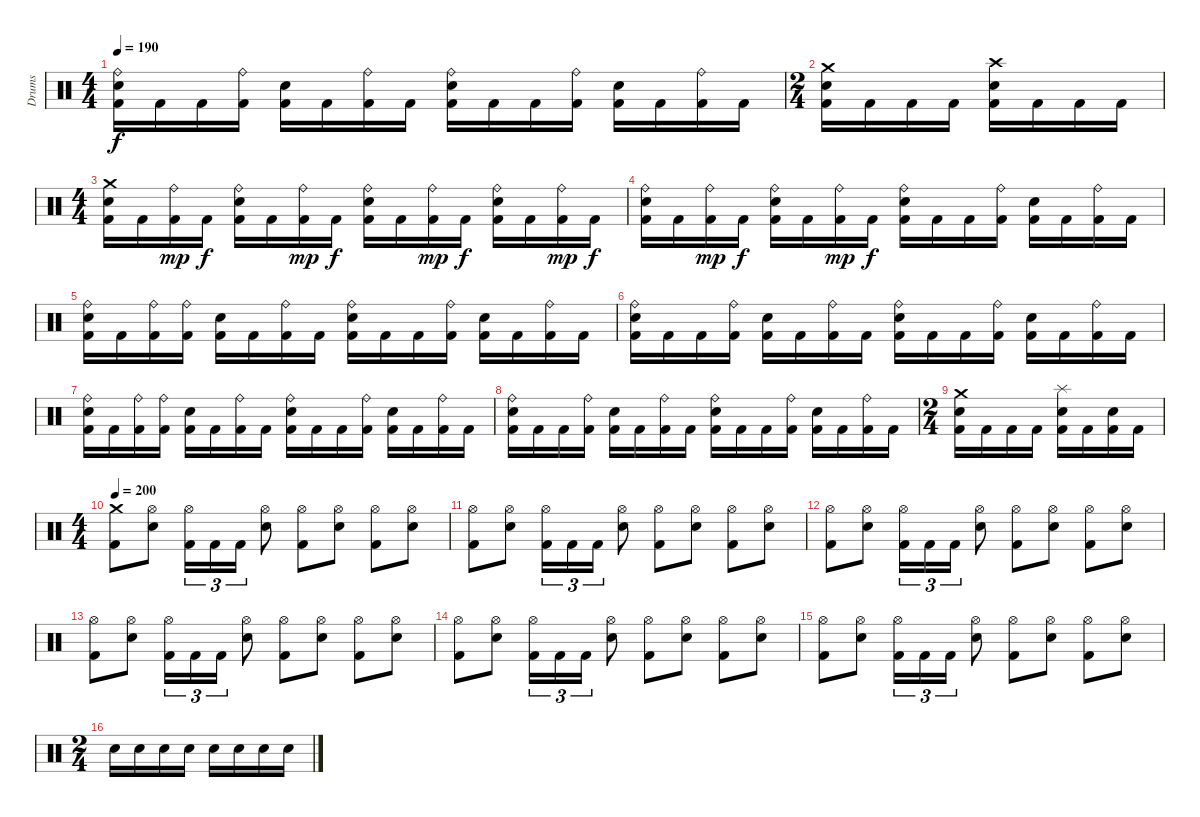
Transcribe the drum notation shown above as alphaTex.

\track ("Drums" "Drums") {instrument percussion}
\staff {score}
\articulation defaults
\ts (4 4)
\tempo 190
\clef neutral
\ks c
("Kick (hit) 2" "Electric Snare (hit)" "Ride (bell)").16{dy f} "Kick (hit) 2".16 "Kick (hit) 2".16 ("Kick (hit) 2" "Ride (bell)").16 ("Kick (hit) 2" "Electric Snare (hit)").16 "Kick (hit) 2".16 ("Kick (hit) 2" "Ride (bell)").16 "Kick (hit) 2".16 ("Kick (hit) 2" "Electric Snare (hit)" "Ride (bell)").16 "Kick (hit) 2".16 "Kick (hit) 2".16 ("Kick (hit) 2" "Ride (bell)").16 ("Kick (hit) 2" "Electric Snare (hit)").16 "Kick (hit) 2".16 ("Kick (hit) 2" "Ride (bell)").16 "Kick (hit) 2".16 |
\ts (2 4)
("Kick (hit) 2" "Electric Snare (hit)" "Crash medium (hit)").16 "Kick (hit) 2".16 "Kick (hit) 2".16 "Kick (hit) 2".16 ("Kick (hit) 2" "Electric Snare (hit)" "Crash high (hit)").16 "Kick (hit) 2".16 "Kick (hit) 2".16 "Kick (hit) 2".16 |
\ts (4 4)
("Kick (hit) 2" "Electric Snare (hit)" "Crash medium (hit)").16 "Kick (hit) 2".16 ("Kick (hit) 2" "Ride (bell)").16{dy mp} "Kick (hit) 2".16{dy f} ("Kick (hit) 2" "Electric Snare (hit)" "Ride (bell)").16 "Kick (hit) 2".16 ("Kick (hit) 2" "Ride (bell)").16{dy mp} "Kick (hit) 2".16{dy f} ("Kick (hit) 2" "Electric Snare (hit)" "Ride (bell)").16 "Kick (hit) 2".16 ("Kick (hit) 2" "Ride (bell)").16{dy mp} "Kick (hit) 2".16{dy f} ("Kick (hit) 2" "Electric Snare (hit)" "Ride (bell)").16 "Kick (hit) 2".16 ("Kick (hit) 2" "Ride (bell)").16{dy mp} "Kick (hit) 2".16{dy f} |
("Kick (hit) 2" "Electric Snare (hit)" "Ride (bell)").16 "Kick (hit) 2".16 ("Kick (hit) 2" "Ride (bell)").16{dy mp} "Kick (hit) 2".16{dy f} ("Kick (hit) 2" "Electric Snare (hit)" "Ride (bell)").16 "Kick (hit) 2".16 ("Kick (hit) 2" "Ride (bell)").16{dy mp} "Kick (hit) 2".16{dy f} ("Kick (hit) 2" "Electric Snare (hit)" "Ride (bell)").16 "Kick (hit) 2".16 "Kick (hit) 2".16 ("Kick (hit) 2" "Ride (bell)").16 ("Kick (hit) 2" "Electric Snare (hit)").16 "Kick (hit) 2".16 ("Kick (hit) 2" "Ride (bell)").16 "Kick (hit) 2".16 |
("Kick (hit) 2" "Electric Snare (hit)" "Ride (bell)").16 "Kick (hit) 2".16 ("Kick (hit) 2" "Ride (bell)").16 ("Kick (hit) 2" "Ride (bell)").16 ("Kick (hit) 2" "Electric Snare (hit)").16 "Kick (hit) 2".16 ("Kick (hit) 2" "Ride (bell)").16 "Kick (hit) 2".16 ("Kick (hit) 2" "Electric Snare (hit)" "Ride (bell)").16 "Kick (hit) 2".16 "Kick (hit) 2".16 ("Kick (hit) 2" "Ride (bell)").16 ("Kick (hit) 2" "Electric Snare (hit)").16 "Kick (hit) 2".16 ("Kick (hit) 2" "Ride (bell)").16 "Kick (hit) 2".16 |
("Kick (hit) 2" "Electric Snare (hit)" "Ride (bell)").16 "Kick (hit) 2".16 "Kick (hit) 2".16 ("Kick (hit) 2" "Ride (bell)").16 ("Kick (hit) 2" "Electric Snare (hit)").16 "Kick (hit) 2".16 ("Kick (hit) 2" "Ride (bell)").16 "Kick (hit) 2".16 ("Kick (hit) 2" "Electric Snare (hit)" "Ride (bell)").16 "Kick (hit) 2".16 "Kick (hit) 2".16 ("Kick (hit) 2" "Ride (bell)").16 ("Kick (hit) 2" "Electric Snare (hit)").16 "Kick (hit) 2".16 ("Kick (hit) 2" "Ride (bell)").16 "Kick (hit) 2".16 |
("Kick (hit) 2" "Electric Snare (hit)" "Ride (bell)").16 "Kick (hit) 2".16 ("Kick (hit) 2" "Ride (bell)").16 ("Kick (hit) 2" "Ride (bell)").16 ("Kick (hit) 2" "Electric Snare (hit)").16 "Kick (hit) 2".16 ("Kick (hit) 2" "Ride (bell)").16 "Kick (hit) 2".16 ("Kick (hit) 2" "Electric Snare (hit)" "Ride (bell)").16 "Kick (hit) 2".16 "Kick (hit) 2".16 ("Kick (hit) 2" "Ride (bell)").16 ("Kick (hit) 2" "Electric Snare (hit)").16 "Kick (hit) 2".16 ("Kick (hit) 2" "Ride (bell)").16 "Kick (hit) 2".16 |
("Kick (hit) 2" "Electric Snare (hit)" "Ride (bell)").16 "Kick (hit) 2".16 "Kick (hit) 2".16 ("Kick (hit) 2" "Ride (bell)").16 ("Kick (hit) 2" "Electric Snare (hit)").16 "Kick (hit) 2".16 ("Kick (hit) 2" "Ride (bell)").16 "Kick (hit) 2".16 ("Kick (hit) 2" "Electric Snare (hit)" "Ride (bell)").16 "Kick (hit) 2".16 "Kick (hit) 2".16 ("Kick (hit) 2" "Ride (bell)").16 ("Kick (hit) 2" "Electric Snare (hit)").16 "Kick (hit) 2".16 ("Kick (hit) 2" "Ride (bell)").16 "Kick (hit) 2".16 |
\ts (2 4)
("Kick (hit) 2" "Electric Snare (hit)" "Crash medium (hit)").16 "Kick (hit) 2".16 "Kick (hit) 2".16 "Kick (hit) 2".16 ("Kick (hit) 2" "Electric Snare (hit)" "Splash (hit)").16 "Kick (hit) 2".16 ("Kick (hit) 2" "Electric Snare (hit)").16 "Kick (hit) 2".16 |
\ts (4 4)
\tempo 200
("Kick (hit) 2" "Crash medium (hit)").8{volume 13} ("Electric Snare (hit)" "Hi-Hat (open)").8 ("Kick (hit) 2" "Hi-Hat (open)").16{tu (3 2)} "Kick (hit) 2".16{tu (3 2)} "Kick (hit) 2".16{tu (3 2)} ("Electric Snare (hit)" "Hi-Hat (open)").8 ("Kick (hit) 2" "Hi-Hat (open)").8 ("Electric Snare (hit)" "Hi-Hat (open)").8 ("Kick (hit) 2" "Hi-Hat (open)").8 ("Electric Snare (hit)" "Hi-Hat (open)").8 |
("Kick (hit) 2" "Hi-Hat (open)").8 ("Electric Snare (hit)" "Hi-Hat (open)").8 ("Kick (hit) 2" "Hi-Hat (open)").16{tu (3 2)} "Kick (hit) 2".16{tu (3 2)} "Kick (hit) 2".16{tu (3 2)} ("Electric Snare (hit)" "Hi-Hat (open)").8 ("Kick (hit) 2" "Hi-Hat (open)").8 ("Electric Snare (hit)" "Hi-Hat (open)").8 ("Kick (hit) 2" "Hi-Hat (open)").8 ("Electric Snare (hit)" "Hi-Hat (open)").8 |
("Kick (hit) 2" "Hi-Hat (open)").8{volume 10} ("Electric Snare (hit)" "Hi-Hat (open)").8 ("Kick (hit) 2" "Hi-Hat (open)").16{tu (3 2)} "Kick (hit) 2".16{tu (3 2)} "Kick (hit) 2".16{tu (3 2)} ("Electric Snare (hit)" "Hi-Hat (open)").8 ("Kick (hit) 2" "Hi-Hat (open)").8 ("Electric Snare (hit)" "Hi-Hat (open)").8 ("Kick (hit) 2" "Hi-Hat (open)").8 ("Electric Snare (hit)" "Hi-Hat (open)").8 |
("Kick (hit) 2" "Hi-Hat (open)").8 ("Electric Snare (hit)" "Hi-Hat (open)").8 ("Kick (hit) 2" "Hi-Hat (open)").16{tu (3 2)} "Kick (hit) 2".16{tu (3 2)} "Kick (hit) 2".16{tu (3 2)} ("Electric Snare (hit)" "Hi-Hat (open)").8 ("Kick (hit) 2" "Hi-Hat (open)").8 ("Electric Snare (hit)" "Hi-Hat (open)").8 ("Kick (hit) 2" "Hi-Hat (open)").8 ("Electric Snare (hit)" "Hi-Hat (open)").8 |
("Kick (hit) 2" "Hi-Hat (open)").8{volume 8} ("Electric Snare (hit)" "Hi-Hat (open)").8 ("Kick (hit) 2" "Hi-Hat (open)").16{tu (3 2)} "Kick (hit) 2".16{tu (3 2)} "Kick (hit) 2".16{tu (3 2)} ("Electric Snare (hit)" "Hi-Hat (open)").8 ("Kick (hit) 2" "Hi-Hat (open)").8 ("Electric Snare (hit)" "Hi-Hat (open)").8 ("Kick (hit) 2" "Hi-Hat (open)").8 ("Electric Snare (hit)" "Hi-Hat (open)").8 |
("Kick (hit) 2" "Hi-Hat (open)").8 ("Electric Snare (hit)" "Hi-Hat (open)").8 ("Kick (hit) 2" "Hi-Hat (open)").16{tu (3 2)} "Kick (hit) 2".16{tu (3 2)} "Kick (hit) 2".16{tu (3 2)} ("Electric Snare (hit)" "Hi-Hat (open)").8 ("Kick (hit) 2" "Hi-Hat (open)").8 ("Electric Snare (hit)" "Hi-Hat (open)").8 ("Kick (hit) 2" "Hi-Hat (open)").8 ("Electric Snare (hit)" "Hi-Hat (open)").8 |
\ts (2 4)
"Electric Snare (hit)".16 "Electric Snare (hit)".16 "Electric Snare (hit)".16 "Electric Snare (hit)".16 "Electric Snare (hit)".16 "Electric Snare (hit)".16 "Electric Snare (hit)".16 "Electric Snare (hit)".16
